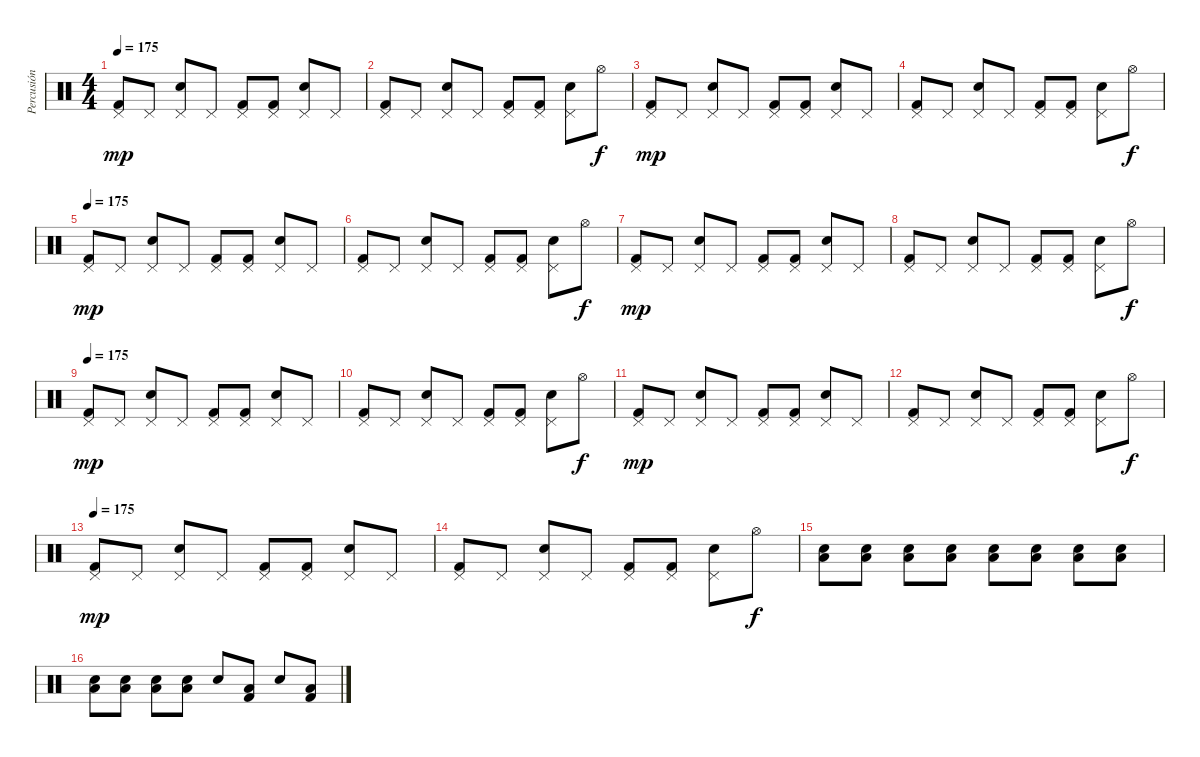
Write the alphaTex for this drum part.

\track ("Percusión" "Percusión") {instrument percussion}
\staff {score}
\articulation defaults
\ts (4 4)
\tempo 175
\clef neutral
\ks c
("Pedal Hi-Hat (hit)" "Kick (hit) 2").8{dy mp} "Pedal Hi-Hat (hit)".8 ("Pedal Hi-Hat (hit)" "Electric Snare (hit)").8 "Pedal Hi-Hat (hit)".8 ("Pedal Hi-Hat (hit)" "Kick (hit) 2").8 ("Pedal Hi-Hat (hit)" "Kick (hit) 2").8 ("Pedal Hi-Hat (hit)" "Electric Snare (hit)").8 "Pedal Hi-Hat (hit)".8 |
("Pedal Hi-Hat (hit)" "Kick (hit) 2").8 "Pedal Hi-Hat (hit)".8 ("Pedal Hi-Hat (hit)" "Electric Snare (hit)").8 "Pedal Hi-Hat (hit)".8 ("Pedal Hi-Hat (hit)" "Kick (hit) 2").8 ("Pedal Hi-Hat (hit)" "Kick (hit) 2").8 ("Pedal Hi-Hat (hit)" "Electric Snare (hit)").8 "Hi-Hat (open)".8{dy f} |
("Pedal Hi-Hat (hit)" "Kick (hit) 2").8{dy mp} "Pedal Hi-Hat (hit)".8 ("Pedal Hi-Hat (hit)" "Electric Snare (hit)").8 "Pedal Hi-Hat (hit)".8 ("Pedal Hi-Hat (hit)" "Kick (hit) 2").8 ("Pedal Hi-Hat (hit)" "Kick (hit) 2").8 ("Pedal Hi-Hat (hit)" "Electric Snare (hit)").8 "Pedal Hi-Hat (hit)".8 |
("Pedal Hi-Hat (hit)" "Kick (hit) 2").8 "Pedal Hi-Hat (hit)".8 ("Pedal Hi-Hat (hit)" "Electric Snare (hit)").8 "Pedal Hi-Hat (hit)".8 ("Pedal Hi-Hat (hit)" "Kick (hit) 2").8 ("Pedal Hi-Hat (hit)" "Kick (hit) 2").8 ("Pedal Hi-Hat (hit)" "Electric Snare (hit)").8 "Hi-Hat (open)".8{dy f} |
\tempo 175
("Pedal Hi-Hat (hit)" "Kick (hit) 2").8{dy mp} "Pedal Hi-Hat (hit)".8 ("Pedal Hi-Hat (hit)" "Electric Snare (hit)").8 "Pedal Hi-Hat (hit)".8 ("Pedal Hi-Hat (hit)" "Kick (hit) 2").8 ("Pedal Hi-Hat (hit)" "Kick (hit) 2").8 ("Pedal Hi-Hat (hit)" "Electric Snare (hit)").8 "Pedal Hi-Hat (hit)".8 |
("Pedal Hi-Hat (hit)" "Kick (hit) 2").8 "Pedal Hi-Hat (hit)".8 ("Pedal Hi-Hat (hit)" "Electric Snare (hit)").8 "Pedal Hi-Hat (hit)".8 ("Pedal Hi-Hat (hit)" "Kick (hit) 2").8 ("Pedal Hi-Hat (hit)" "Kick (hit) 2").8 ("Pedal Hi-Hat (hit)" "Electric Snare (hit)").8 "Hi-Hat (open)".8{dy f} |
("Pedal Hi-Hat (hit)" "Kick (hit) 2").8{dy mp} "Pedal Hi-Hat (hit)".8 ("Pedal Hi-Hat (hit)" "Electric Snare (hit)").8 "Pedal Hi-Hat (hit)".8 ("Pedal Hi-Hat (hit)" "Kick (hit) 2").8 ("Pedal Hi-Hat (hit)" "Kick (hit) 2").8 ("Pedal Hi-Hat (hit)" "Electric Snare (hit)").8 "Pedal Hi-Hat (hit)".8 |
("Pedal Hi-Hat (hit)" "Kick (hit) 2").8 "Pedal Hi-Hat (hit)".8 ("Pedal Hi-Hat (hit)" "Electric Snare (hit)").8 "Pedal Hi-Hat (hit)".8 ("Pedal Hi-Hat (hit)" "Kick (hit) 2").8 ("Pedal Hi-Hat (hit)" "Kick (hit) 2").8 ("Pedal Hi-Hat (hit)" "Electric Snare (hit)").8 "Hi-Hat (open)".8{dy f} |
\tempo 175
("Pedal Hi-Hat (hit)" "Kick (hit) 2").8{dy mp} "Pedal Hi-Hat (hit)".8 ("Pedal Hi-Hat (hit)" "Electric Snare (hit)").8 "Pedal Hi-Hat (hit)".8 ("Pedal Hi-Hat (hit)" "Kick (hit) 2").8 ("Pedal Hi-Hat (hit)" "Kick (hit) 2").8 ("Pedal Hi-Hat (hit)" "Electric Snare (hit)").8 "Pedal Hi-Hat (hit)".8 |
("Pedal Hi-Hat (hit)" "Kick (hit) 2").8 "Pedal Hi-Hat (hit)".8 ("Pedal Hi-Hat (hit)" "Electric Snare (hit)").8 "Pedal Hi-Hat (hit)".8 ("Pedal Hi-Hat (hit)" "Kick (hit) 2").8 ("Pedal Hi-Hat (hit)" "Kick (hit) 2").8 ("Pedal Hi-Hat (hit)" "Electric Snare (hit)").8 "Hi-Hat (open)".8{dy f} |
("Pedal Hi-Hat (hit)" "Kick (hit) 2").8{dy mp} "Pedal Hi-Hat (hit)".8 ("Pedal Hi-Hat (hit)" "Electric Snare (hit)").8 "Pedal Hi-Hat (hit)".8 ("Pedal Hi-Hat (hit)" "Kick (hit) 2").8 ("Pedal Hi-Hat (hit)" "Kick (hit) 2").8 ("Pedal Hi-Hat (hit)" "Electric Snare (hit)").8 "Pedal Hi-Hat (hit)".8 |
("Pedal Hi-Hat (hit)" "Kick (hit) 2").8 "Pedal Hi-Hat (hit)".8 ("Pedal Hi-Hat (hit)" "Electric Snare (hit)").8 "Pedal Hi-Hat (hit)".8 ("Pedal Hi-Hat (hit)" "Kick (hit) 2").8 ("Pedal Hi-Hat (hit)" "Kick (hit) 2").8 ("Pedal Hi-Hat (hit)" "Electric Snare (hit)").8 "Hi-Hat (open)".8{dy f} |
\tempo 175
("Pedal Hi-Hat (hit)" "Kick (hit) 2").8{dy mp} "Pedal Hi-Hat (hit)".8 ("Pedal Hi-Hat (hit)" "Electric Snare (hit)").8 "Pedal Hi-Hat (hit)".8 ("Pedal Hi-Hat (hit)" "Kick (hit) 2").8 ("Pedal Hi-Hat (hit)" "Kick (hit) 2").8 ("Pedal Hi-Hat (hit)" "Electric Snare (hit)").8 "Pedal Hi-Hat (hit)".8 |
("Pedal Hi-Hat (hit)" "Kick (hit) 2").8 "Pedal Hi-Hat (hit)".8 ("Pedal Hi-Hat (hit)" "Electric Snare (hit)").8 "Pedal Hi-Hat (hit)".8 ("Pedal Hi-Hat (hit)" "Kick (hit) 2").8 ("Pedal Hi-Hat (hit)" "Kick (hit) 2").8 ("Pedal Hi-Hat (hit)" "Electric Snare (hit)").8 "Hi-Hat (open)".8{dy f} |
("Low Floor Tom (hit)" "Electric Snare (hit)").8 ("Low Floor Tom (hit)" "Electric Snare (hit)").8 ("Low Floor Tom (hit)" "Electric Snare (hit)").8 ("Low Floor Tom (hit)" "Electric Snare (hit)").8 ("Low Floor Tom (hit)" "Electric Snare (hit)").8 ("Low Floor Tom (hit)" "Electric Snare (hit)").8 ("Low Floor Tom (hit)" "Electric Snare (hit)").8 ("Low Floor Tom (hit)" "Electric Snare (hit)").8 |
("Low Floor Tom (hit)" "Electric Snare (hit)").8 ("Low Floor Tom (hit)" "Electric Snare (hit)").8 ("Low Floor Tom (hit)" "Electric Snare (hit)").8 ("Low Floor Tom (hit)" "Electric Snare (hit)").8 "Electric Snare (hit)".8 ("Low Tom (hit)" "Kick (hit) 2").8 "Electric Snare (hit)".8 ("Low Tom (hit)" "Kick (hit) 2").8
